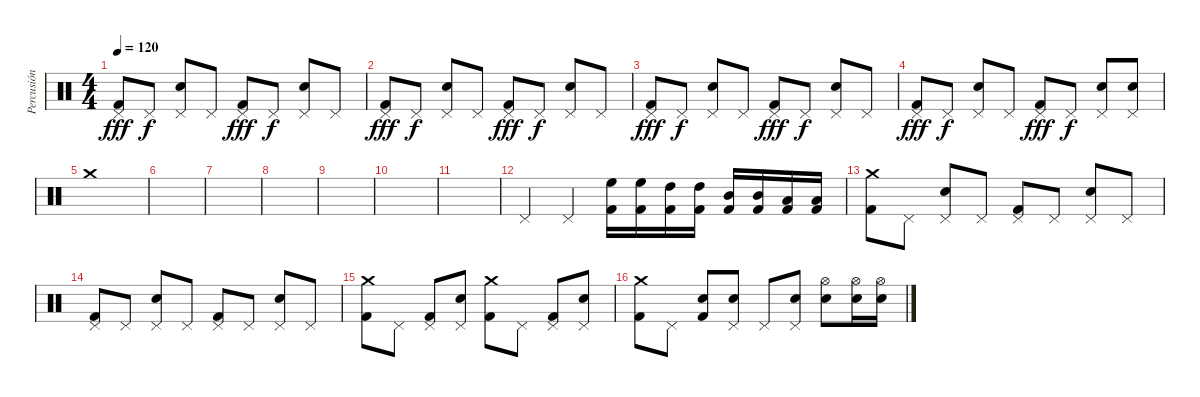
\track ("Percusión" "Percusión") {instrument percussion}
\staff {score}
\articulation defaults
\ts (4 4)
\tempo 120
\clef neutral
\ks c
("Pedal Hi-Hat (hit)" "Kick (hit) 2").8{dy fff} "Pedal Hi-Hat (hit)".8{dy f} ("Pedal Hi-Hat (hit)" "Electric Snare (hit)").8 "Pedal Hi-Hat (hit)".8 ("Pedal Hi-Hat (hit)" "Kick (hit) 2").8{dy fff} "Pedal Hi-Hat (hit)".8{dy f} ("Pedal Hi-Hat (hit)" "Electric Snare (hit)").8 "Pedal Hi-Hat (hit)".8 |
("Pedal Hi-Hat (hit)" "Kick (hit) 2").8{dy fff} "Pedal Hi-Hat (hit)".8{dy f} ("Pedal Hi-Hat (hit)" "Electric Snare (hit)").8 "Pedal Hi-Hat (hit)".8 ("Pedal Hi-Hat (hit)" "Kick (hit) 2").8{dy fff} "Pedal Hi-Hat (hit)".8{dy f} ("Pedal Hi-Hat (hit)" "Electric Snare (hit)").8 "Pedal Hi-Hat (hit)".8 |
("Pedal Hi-Hat (hit)" "Kick (hit) 2").8{dy fff} "Pedal Hi-Hat (hit)".8{dy f} ("Pedal Hi-Hat (hit)" "Electric Snare (hit)").8 "Pedal Hi-Hat (hit)".8 ("Pedal Hi-Hat (hit)" "Kick (hit) 2").8{dy fff} "Pedal Hi-Hat (hit)".8{dy f} ("Pedal Hi-Hat (hit)" "Electric Snare (hit)").8 "Pedal Hi-Hat (hit)".8 |
("Pedal Hi-Hat (hit)" "Kick (hit) 2").8{dy fff} "Pedal Hi-Hat (hit)".8{dy f} ("Pedal Hi-Hat (hit)" "Electric Snare (hit)").8 "Pedal Hi-Hat (hit)".8 ("Pedal Hi-Hat (hit)" "Kick (hit) 2").8{dy fff} "Pedal Hi-Hat (hit)".8{dy f} ("Pedal Hi-Hat (hit)" "Electric Snare (hit)").8 ("Pedal Hi-Hat (hit)" "Electric Snare (hit)").8 |
"Crash medium (hit)".1 |
|
|
|
|
|
|
"Pedal Hi-Hat (hit)".4 "Pedal Hi-Hat (hit)".4 ("High Floor Tom (hit)" "Kick (hit) 2").16 ("High Floor Tom (hit)" "Kick (hit) 2").16 ("High Tom (hit)" "Kick (hit) 2").16 ("High Tom (hit)" "Kick (hit) 2").16 ("Mid Tom (hit)" "Kick (hit) 2").16 ("Mid Tom (hit)" "Kick (hit) 2").16 ("Low Tom (hit)" "Kick (hit) 2").16 ("Low Tom (hit)" "Kick (hit) 2").16 |
("Crash medium (hit)" "Kick (hit) 2").8 "Pedal Hi-Hat (hit)".8 ("Pedal Hi-Hat (hit)" "Electric Snare (hit)").8 "Pedal Hi-Hat (hit)".8 ("Pedal Hi-Hat (hit)" "Kick (hit) 2").8 "Pedal Hi-Hat (hit)".8 ("Pedal Hi-Hat (hit)" "Electric Snare (hit)").8 "Pedal Hi-Hat (hit)".8 |
("Pedal Hi-Hat (hit)" "Kick (hit) 2").8 "Pedal Hi-Hat (hit)".8 ("Pedal Hi-Hat (hit)" "Electric Snare (hit)").8 "Pedal Hi-Hat (hit)".8 ("Pedal Hi-Hat (hit)" "Kick (hit) 2").8 "Pedal Hi-Hat (hit)".8 ("Pedal Hi-Hat (hit)" "Electric Snare (hit)").8 "Pedal Hi-Hat (hit)".8 |
("Crash medium (hit)" "Kick (hit) 2").8 "Pedal Hi-Hat (hit)".8 ("Pedal Hi-Hat (hit)" "Kick (hit) 2").8 ("Pedal Hi-Hat (hit)" "Electric Snare (hit)").8 ("Crash medium (hit)" "Kick (hit) 2").8 "Pedal Hi-Hat (hit)".8 ("Pedal Hi-Hat (hit)" "Kick (hit) 2").8 ("Pedal Hi-Hat (hit)" "Electric Snare (hit)").8 |
("Crash medium (hit)" "Kick (hit) 2").8 "Pedal Hi-Hat (hit)".8 ("Electric Snare (hit)" "Kick (hit) 2").8 ("Pedal Hi-Hat (hit)" "Electric Snare (hit)").8 "Pedal Hi-Hat (hit)".8 ("Pedal Hi-Hat (hit)" "Electric Snare (hit)").8 ("Hi-Hat (open)" "Electric Snare (hit)").8 ("Hi-Hat (open)" "Electric Snare (hit)").16 ("Hi-Hat (open)" "Electric Snare (hit)").16
